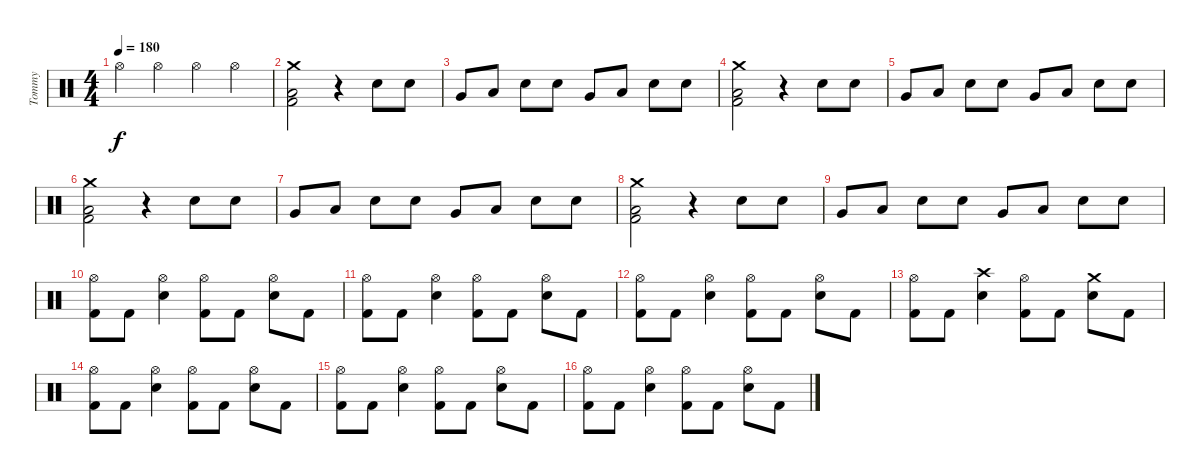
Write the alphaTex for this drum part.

\track ("Tommy" "Tommy") {instrument percussion}
\staff {score}
\articulation defaults
\ts (4 4)
\tempo 180
\clef neutral
\ks c "Hi-Hat (open)".4{dy f} "Hi-Hat (open)".4 "Hi-Hat (open)".4 "Hi-Hat (open)".4
|
("Kick (hit) 2" "Low Floor Tom (hit)" "Crash medium (hit)").2 r.4 "Snare (hit) 2".8 "Snare (hit) 2".8 |
"Very Low Tom (hit)".8 "Low Tom (hit)".8 "Snare (hit) 2".8 "Snare (hit) 2".8 "Very Low Tom (hit)".8 "Low Tom (hit)".8 "Snare (hit) 2".8 "Snare (hit) 2".8 |
("Kick (hit) 2" "Low Floor Tom (hit)" "Crash medium (hit)").2 r.4 "Snare (hit) 2".8 "Snare (hit) 2".8 |
"Very Low Tom (hit)".8 "Low Tom (hit)".8 "Snare (hit) 2".8 "Snare (hit) 2".8 "Very Low Tom (hit)".8 "Low Tom (hit)".8 "Snare (hit) 2".8 "Snare (hit) 2".8 |
("Kick (hit) 2" "Low Floor Tom (hit)" "Crash medium (hit)").2 r.4 "Snare (hit) 2".8 "Snare (hit) 2".8 |
"Very Low Tom (hit)".8 "Low Tom (hit)".8 "Snare (hit) 2".8 "Snare (hit) 2".8 "Very Low Tom (hit)".8 "Low Tom (hit)".8 "Snare (hit) 2".8 "Snare (hit) 2".8 |
("Kick (hit) 2" "Low Floor Tom (hit)" "Crash medium (hit)").2 r.4 "Snare (hit) 2".8 "Snare (hit) 2".8 |
"Very Low Tom (hit)".8 "Low Tom (hit)".8 "Snare (hit) 2".8 "Snare (hit) 2".8 "Very Low Tom (hit)".8 "Low Tom (hit)".8 "Snare (hit) 2".8 "Snare (hit) 2".8 |
("Kick (hit) 2" "Hi-Hat (open)").8 "Kick (hit) 2".8 ("Snare (hit) 2" "Hi-Hat (open)").4 ("Kick (hit) 2" "Hi-Hat (open)").8 "Kick (hit) 2".8 ("Snare (hit) 2" "Hi-Hat (open)").8 "Kick (hit) 2".8 |
("Kick (hit) 2" "Hi-Hat (open)").8 "Kick (hit) 2".8 ("Snare (hit) 2" "Hi-Hat (open)").4 ("Kick (hit) 2" "Hi-Hat (open)").8 "Kick (hit) 2".8 ("Snare (hit) 2" "Hi-Hat (open)").8 "Kick (hit) 2".8 |
("Kick (hit) 2" "Hi-Hat (open)").8 "Kick (hit) 2".8 ("Snare (hit) 2" "Hi-Hat (open)").4 ("Kick (hit) 2" "Hi-Hat (open)").8 "Kick (hit) 2".8 ("Snare (hit) 2" "Hi-Hat (open)").8 "Kick (hit) 2".8 |
("Kick (hit) 2" "Hi-Hat (open)").8 "Kick (hit) 2".8 ("Snare (hit) 2" "Crash high (hit)").4 ("Kick (hit) 2" "Hi-Hat (open)").8 "Kick (hit) 2".8 ("Snare (hit) 2" "Crash medium (hit)").8 "Kick (hit) 2".8 |
("Kick (hit) 2" "Hi-Hat (open)").8 "Kick (hit) 2".8 ("Snare (hit) 2" "Hi-Hat (open)").4 ("Kick (hit) 2" "Hi-Hat (open)").8 "Kick (hit) 2".8 ("Snare (hit) 2" "Hi-Hat (open)").8 "Kick (hit) 2".8 |
("Kick (hit) 2" "Hi-Hat (open)").8 "Kick (hit) 2".8 ("Snare (hit) 2" "Hi-Hat (open)").4 ("Kick (hit) 2" "Hi-Hat (open)").8 "Kick (hit) 2".8 ("Snare (hit) 2" "Hi-Hat (open)").8 "Kick (hit) 2".8 |
("Kick (hit) 2" "Hi-Hat (open)").8 "Kick (hit) 2".8 ("Snare (hit) 2" "Hi-Hat (open)").4 ("Kick (hit) 2" "Hi-Hat (open)").8 "Kick (hit) 2".8 ("Snare (hit) 2" "Hi-Hat (open)").8 "Kick (hit) 2".8
